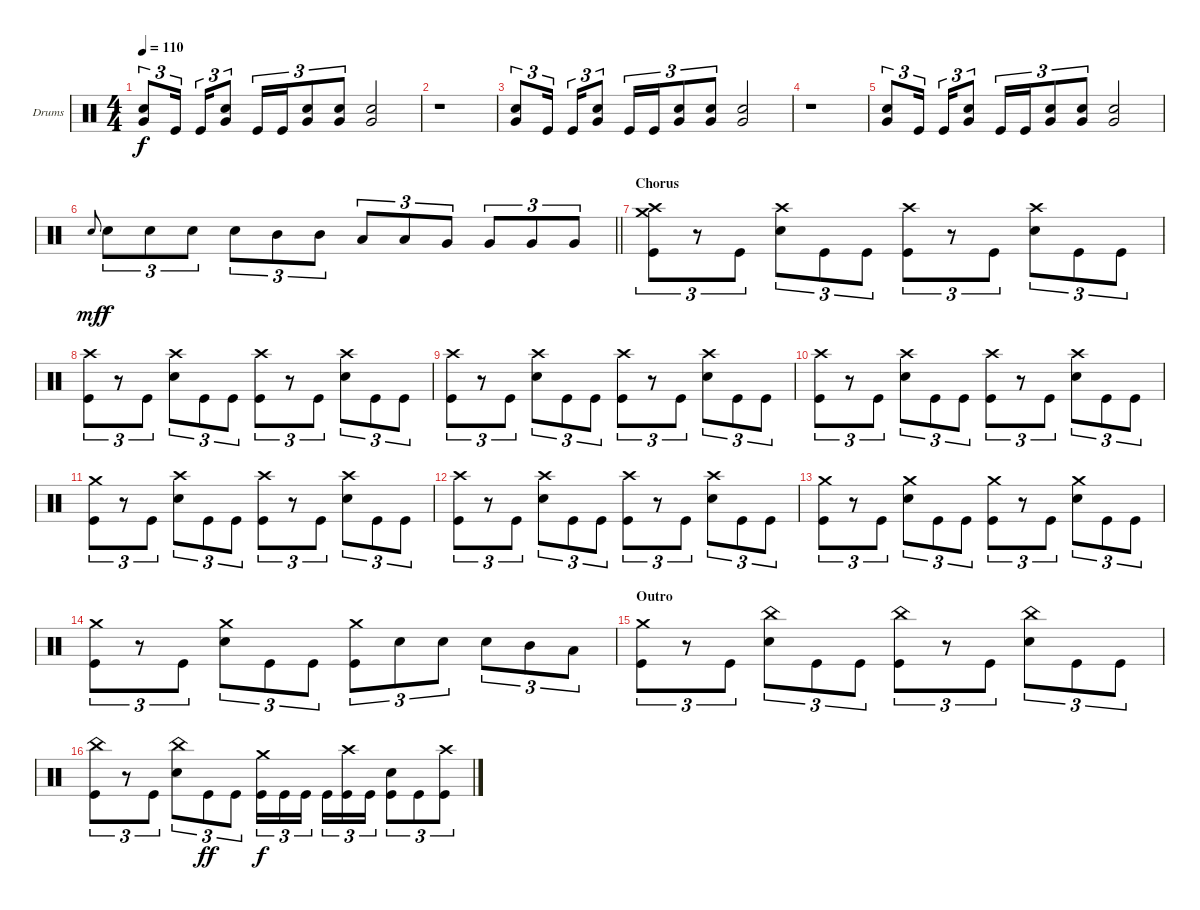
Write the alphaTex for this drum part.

\bracketExtendMode groupsimilarinstruments
\firstSystemTrackNameOrientation horizontal
\otherSystemsTrackNameOrientation horizontal
\track ("Drumkit" "Drums") {instrument percussion}
\staff {score}
\articulation defaults
\ts (4 4)
\tempo 110
\clef neutral
\ks c
("Very Low Tom (hit)" "Snare (hit) 2").8{tu (3 2) dy f} "Kick (hit)".16{tu (3 2)} "Kick (hit)".16{tu (3 2)} ("Very Low Tom (hit)" "Snare (hit) 2").8{tu (3 2)} "Kick (hit)".16{tu (3 2)} "Kick (hit)".16{tu (3 2)} ("Very Low Tom (hit)" "Snare (hit) 2").8{tu (3 2)} ("Very Low Tom (hit)" "Snare (hit) 2").8{tu (3 2)} ("Very Low Tom (hit)" "Snare (hit) 2").2 |
r.1 |
("Very Low Tom (hit)" "Snare (hit) 2").8{tu (3 2)} "Kick (hit)".16{tu (3 2)} "Kick (hit)".16{tu (3 2)} ("Very Low Tom (hit)" "Snare (hit) 2").8{tu (3 2)} "Kick (hit)".16{tu (3 2)} "Kick (hit)".16{tu (3 2)} ("Very Low Tom (hit)" "Snare (hit) 2").8{tu (3 2)} ("Very Low Tom (hit)" "Snare (hit) 2").8{tu (3 2)} ("Very Low Tom (hit)" "Snare (hit) 2").2 |
r.1 |
("Very Low Tom (hit)" "Snare (hit) 2").8{tu (3 2)} "Kick (hit)".16{tu (3 2)} "Kick (hit)".16{tu (3 2)} ("Very Low Tom (hit)" "Snare (hit) 2").8{tu (3 2)} "Kick (hit)".16{tu (3 2)} "Kick (hit)".16{tu (3 2)} ("Very Low Tom (hit)" "Snare (hit) 2").8{tu (3 2)} ("Very Low Tom (hit)" "Snare (hit) 2").8{tu (3 2)} ("Very Low Tom (hit)" "Snare (hit) 2").2 |
\barLineRight lightlight "Snare (hit) 2".8{gr onbeat dy mf} "Snare (hit) 2".8{tu (3 2) dy f} "Snare (hit) 2".8{tu (3 2)} "Snare (hit) 2".8{tu (3 2)} "Snare (hit) 2".8{tu (3 2)} "Mid Tom (hit)".8{tu (3 2)} "Mid Tom (hit)".8{tu (3 2)} "Low Tom (hit)".8{tu (3 2)} "Low Tom (hit)".8{tu (3 2)} "Very Low Tom (hit)".8{tu (3 2)} "Very Low Tom (hit)".8{tu (3 2)} "Very Low Tom (hit)".8{tu (3 2)} "Very Low Tom (hit)".8{tu (3 2)}
|
\section ("" "Chorus")
("Crash high (hit)" "Crash medium (hit)" "Kick (hit)").8{tu (3 2)} r.8{tu (3 2)} "Kick (hit)".8{tu (3 2)} ("Crash high (hit)" "Snare (hit) 2").8{tu (3 2)} "Kick (hit)".8{tu (3 2)} "Kick (hit)".8{tu (3 2)} ("Crash high (hit)" "Kick (hit)").8{tu (3 2)} r.8{tu (3 2)} "Kick (hit)".8{tu (3 2)} ("Crash high (hit)" "Snare (hit) 2").8{tu (3 2)} "Kick (hit)".8{tu (3 2)} "Kick (hit)".8{tu (3 2)} |
("Crash high (hit)" "Kick (hit)").8{tu (3 2)} r.8{tu (3 2)} "Kick (hit)".8{tu (3 2)} ("Crash high (hit)" "Snare (hit) 2").8{tu (3 2)} "Kick (hit)".8{tu (3 2)} "Kick (hit)".8{tu (3 2)} ("Crash high (hit)" "Kick (hit)").8{tu (3 2)} r.8{tu (3 2)} "Kick (hit)".8{tu (3 2)} ("Crash high (hit)" "Snare (hit) 2").8{tu (3 2)} "Kick (hit)".8{tu (3 2)} "Kick (hit)".8{tu (3 2)} |
("Crash high (hit)" "Kick (hit)").8{tu (3 2)} r.8{tu (3 2)} "Kick (hit)".8{tu (3 2)} ("Crash high (hit)" "Snare (hit) 2").8{tu (3 2)} "Kick (hit)".8{tu (3 2)} "Kick (hit)".8{tu (3 2)} ("Crash high (hit)" "Kick (hit)").8{tu (3 2)} r.8{tu (3 2)} "Kick (hit)".8{tu (3 2)} ("Crash high (hit)" "Snare (hit) 2").8{tu (3 2)} "Kick (hit)".8{tu (3 2)} "Kick (hit)".8{tu (3 2)} |
("Crash high (hit)" "Kick (hit)").8{tu (3 2)} r.8{tu (3 2)} "Kick (hit)".8{tu (3 2)} ("Crash high (hit)" "Snare (hit) 2").8{tu (3 2)} "Kick (hit)".8{tu (3 2)} "Kick (hit)".8{tu (3 2)} ("Crash high (hit)" "Kick (hit)").8{tu (3 2)} r.8{tu (3 2)} "Kick (hit)".8{tu (3 2)} ("Crash high (hit)" "Snare (hit) 2").8{tu (3 2)} "Kick (hit)".8{tu (3 2)} "Kick (hit)".8{tu (3 2)} |
("Crash medium (hit)" "Kick (hit)").8{tu (3 2)} r.8{tu (3 2)} "Kick (hit)".8{tu (3 2)} ("Crash high (hit)" "Snare (hit) 2").8{tu (3 2)} "Kick (hit)".8{tu (3 2)} "Kick (hit)".8{tu (3 2)} ("Crash high (hit)" "Kick (hit)").8{tu (3 2)} r.8{tu (3 2)} "Kick (hit)".8{tu (3 2)} ("Crash high (hit)" "Snare (hit) 2").8{tu (3 2)} "Kick (hit)".8{tu (3 2)} "Kick (hit)".8{tu (3 2)} |
("Crash high (hit)" "Kick (hit)").8{tu (3 2)} r.8{tu (3 2)} "Kick (hit)".8{tu (3 2)} ("Crash high (hit)" "Snare (hit) 2").8{tu (3 2)} "Kick (hit)".8{tu (3 2)} "Kick (hit)".8{tu (3 2)} ("Crash high (hit)" "Kick (hit)").8{tu (3 2)} r.8{tu (3 2)} "Kick (hit)".8{tu (3 2)} ("Crash high (hit)" "Snare (hit) 2").8{tu (3 2)} "Kick (hit)".8{tu (3 2)} "Kick (hit)".8{tu (3 2)} |
("Crash medium (hit)" "Kick (hit)").8{tu (3 2)} r.8{tu (3 2)} "Kick (hit)".8{tu (3 2)} ("Crash medium (hit)" "Snare (hit) 2").8{tu (3 2)} "Kick (hit)".8{tu (3 2)} "Kick (hit)".8{tu (3 2)} ("Crash medium (hit)" "Kick (hit)").8{tu (3 2)} r.8{tu (3 2)} "Kick (hit)".8{tu (3 2)} ("Crash medium (hit)" "Snare (hit) 2").8{tu (3 2)} "Kick (hit)".8{tu (3 2)} "Kick (hit)".8{tu (3 2)} |
("Crash medium (hit)" "Kick (hit)").8{tu (3 2)} r.8{tu (3 2)} "Kick (hit)".8{tu (3 2)} ("Crash medium (hit)" "Snare (hit) 2").8{tu (3 2)} "Kick (hit)".8{tu (3 2)} "Kick (hit)".8{tu (3 2)} ("Crash medium (hit)" "Kick (hit)").8{tu (3 2)} "Snare (hit) 2".8{tu (3 2)} "Snare (hit) 2".8{tu (3 2)} "Snare (hit) 2".8{tu (3 2)} "Mid Tom (hit)".8{tu (3 2)} "Low Tom (hit)".8{tu (3 2)} |
\section ("" "Outro")
("Crash medium (hit)" "Kick (hit)").8{tu (3 2)} r.8{tu (3 2)} "Kick (hit)".8{tu (3 2)} ("China (hit)" "Snare (hit) 2").8{tu (3 2)} "Kick (hit)".8{tu (3 2)} "Kick (hit)".8{tu (3 2)} ("China (hit)" "Kick (hit)").8{tu (3 2)} r.8{tu (3 2)} "Kick (hit)".8{tu (3 2)} ("China (hit)" "Snare (hit) 2").8{tu (3 2)} "Kick (hit)".8{tu (3 2)} "Kick (hit)".8{tu (3 2)} |
("China (hit)" "Kick (hit)").8{tu (3 2)} r.8{tu (3 2)} "Kick (hit)".8{tu (3 2)} ("China (hit)" "Snare (hit) 2").8{tu (3 2)} "Kick (hit)".8{tu (3 2) dy ff} "Kick (hit)".8{tu (3 2)} ("Crash medium (hit)" "Kick (hit)").16{tu (3 2) dy f} "Kick (hit)".16{tu (3 2)} "Kick (hit)".16{tu (3 2)} "Kick (hit)".16{tu (3 2)} ("Crash high (hit)" "Kick (hit)").16{tu (3 2)} "Kick (hit)".16{tu (3 2)} ("Kick (hit)" "Snare (hit) 2").8{tu (3 2)} "Kick (hit)".8{tu (3 2)} ("Crash high (hit)" "Kick (hit)").8{tu (3 2)}
